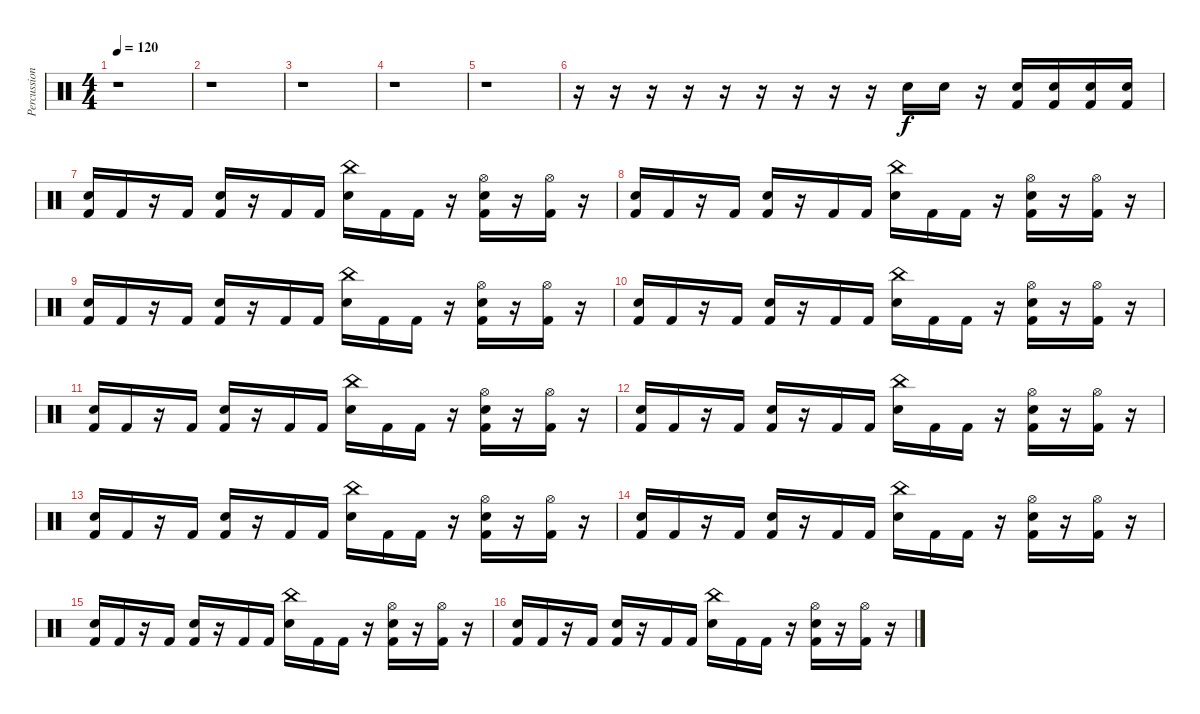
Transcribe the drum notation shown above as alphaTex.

\track ("Percussion" "Percussion") {instrument percussion}
\staff {score}
\articulation defaults
\ts (4 4)
\tempo 120
\clef neutral
\ks c
r.1{dy f} |
r.1 |
r.1 |
r.1 |
r.1 |
r.16 r.16 r.16 r.16 r.16 r.16 r.16 r.16 r.16 "Electric Snare (hit)".16 "Electric Snare (hit)".16 r.16 ("Kick (hit) 2" "Electric Snare (hit)").16 ("Kick (hit) 2" "Electric Snare (hit)").16 ("Kick (hit) 2" "Electric Snare (hit)").16 ("Kick (hit) 2" "Electric Snare (hit)").16 |
("Kick (hit) 2" "Electric Snare (hit)").16 "Kick (hit) 2".16 r.16 "Kick (hit) 2".16 ("Kick (hit) 2" "Electric Snare (hit)").16 r.16 "Kick (hit) 2".16 "Kick (hit) 2".16 ("Electric Snare (hit)" "China (hit)").16 "Kick (hit) 2".16 "Kick (hit) 2".16 r.16 ("Kick (hit) 2" "Electric Snare (hit)" "Hi-Hat (open)").16 r.16 ("Kick (hit) 2" "Hi-Hat (open)").16 r.16 |
("Kick (hit) 2" "Electric Snare (hit)").16 "Kick (hit) 2".16 r.16 "Kick (hit) 2".16 ("Kick (hit) 2" "Electric Snare (hit)").16 r.16 "Kick (hit) 2".16 "Kick (hit) 2".16 ("Electric Snare (hit)" "China (hit)").16 "Kick (hit) 2".16 "Kick (hit) 2".16 r.16 ("Kick (hit) 2" "Electric Snare (hit)" "Hi-Hat (open)").16 r.16 ("Kick (hit) 2" "Hi-Hat (open)").16 r.16 |
("Kick (hit) 2" "Electric Snare (hit)").16 "Kick (hit) 2".16 r.16 "Kick (hit) 2".16 ("Kick (hit) 2" "Electric Snare (hit)").16 r.16 "Kick (hit) 2".16 "Kick (hit) 2".16 ("Electric Snare (hit)" "China (hit)").16 "Kick (hit) 2".16 "Kick (hit) 2".16 r.16 ("Kick (hit) 2" "Electric Snare (hit)" "Hi-Hat (open)").16 r.16 ("Kick (hit) 2" "Hi-Hat (open)").16 r.16 |
("Kick (hit) 2" "Electric Snare (hit)").16 "Kick (hit) 2".16 r.16 "Kick (hit) 2".16 ("Kick (hit) 2" "Electric Snare (hit)").16 r.16 "Kick (hit) 2".16 "Kick (hit) 2".16 ("Electric Snare (hit)" "China (hit)").16 "Kick (hit) 2".16 "Kick (hit) 2".16 r.16 ("Kick (hit) 2" "Electric Snare (hit)" "Hi-Hat (open)").16 r.16 ("Kick (hit) 2" "Hi-Hat (open)").16 r.16 |
("Kick (hit) 2" "Electric Snare (hit)").16 "Kick (hit) 2".16 r.16 "Kick (hit) 2".16 ("Kick (hit) 2" "Electric Snare (hit)").16 r.16 "Kick (hit) 2".16 "Kick (hit) 2".16 ("Electric Snare (hit)" "China (hit)").16 "Kick (hit) 2".16 "Kick (hit) 2".16 r.16 ("Kick (hit) 2" "Electric Snare (hit)" "Hi-Hat (open)").16 r.16 ("Kick (hit) 2" "Hi-Hat (open)").16 r.16 |
("Kick (hit) 2" "Electric Snare (hit)").16 "Kick (hit) 2".16 r.16 "Kick (hit) 2".16 ("Kick (hit) 2" "Electric Snare (hit)").16 r.16 "Kick (hit) 2".16 "Kick (hit) 2".16 ("Electric Snare (hit)" "China (hit)").16 "Kick (hit) 2".16 "Kick (hit) 2".16 r.16 ("Kick (hit) 2" "Electric Snare (hit)" "Hi-Hat (open)").16 r.16 ("Kick (hit) 2" "Hi-Hat (open)").16 r.16 |
("Kick (hit) 2" "Electric Snare (hit)").16 "Kick (hit) 2".16 r.16 "Kick (hit) 2".16 ("Kick (hit) 2" "Electric Snare (hit)").16 r.16 "Kick (hit) 2".16 "Kick (hit) 2".16 ("Electric Snare (hit)" "China (hit)").16 "Kick (hit) 2".16 "Kick (hit) 2".16 r.16 ("Kick (hit) 2" "Electric Snare (hit)" "Hi-Hat (open)").16 r.16 ("Kick (hit) 2" "Hi-Hat (open)").16 r.16 |
("Kick (hit) 2" "Electric Snare (hit)").16 "Kick (hit) 2".16 r.16 "Kick (hit) 2".16 ("Kick (hit) 2" "Electric Snare (hit)").16 r.16 "Kick (hit) 2".16 "Kick (hit) 2".16 ("Electric Snare (hit)" "China (hit)").16 "Kick (hit) 2".16 "Kick (hit) 2".16 r.16 ("Kick (hit) 2" "Electric Snare (hit)" "Hi-Hat (open)").16 r.16 ("Kick (hit) 2" "Hi-Hat (open)").16 r.16 |
("Kick (hit) 2" "Electric Snare (hit)").16 "Kick (hit) 2".16 r.16 "Kick (hit) 2".16 ("Kick (hit) 2" "Electric Snare (hit)").16 r.16 "Kick (hit) 2".16 "Kick (hit) 2".16 ("Electric Snare (hit)" "China (hit)").16 "Kick (hit) 2".16 "Kick (hit) 2".16 r.16 ("Kick (hit) 2" "Electric Snare (hit)" "Hi-Hat (open)").16 r.16 ("Kick (hit) 2" "Hi-Hat (open)").16 r.16 |
("Kick (hit) 2" "Electric Snare (hit)").16 "Kick (hit) 2".16 r.16 "Kick (hit) 2".16 ("Kick (hit) 2" "Electric Snare (hit)").16 r.16 "Kick (hit) 2".16 "Kick (hit) 2".16 ("Electric Snare (hit)" "China (hit)").16 "Kick (hit) 2".16 "Kick (hit) 2".16 r.16 ("Kick (hit) 2" "Electric Snare (hit)" "Hi-Hat (open)").16 r.16 ("Kick (hit) 2" "Hi-Hat (open)").16 r.16
